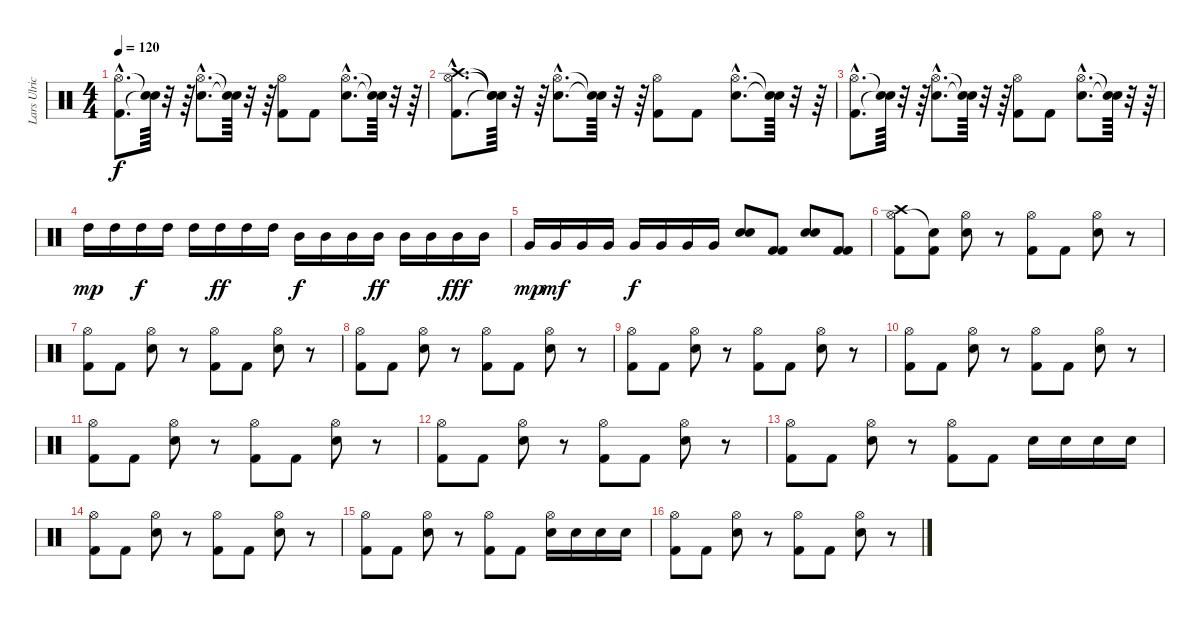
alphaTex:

\track ("Lars Ulrich" "Lars Ulric") {instrument percussion}
\staff {score}
\articulation defaults
\ts (4 4)
\tempo 120
\clef neutral
\ks c
("Kick (hit) 2"{hac} "Hi-Hat (open)"{hac}).8{d dy f} ("Snare (hit)"{t} "Snare (hit)"{t}).64 r.32 r.64 ("Snare (hit) 2"{hac} "Hi-Hat (open)"{hac}).8{d} ("Snare (hit)"{t} "Snare (hit)"{t}).64 r.32 r.64 ("Kick (hit) 2" "Hi-Hat (open)").8 "Kick (hit) 2".8 ("Snare (hit) 2"{hac} "Hi-Hat (open)"{hac}).8{d} ("Snare (hit)"{t} "Snare (hit)"{t}).64 r.32 r.64 |
("Kick (hit) 2"{hac} "Hi-Hat (open)"{hac} "Crash high (hit)"{hac}).8{d} ("Snare (hit)"{t} "Snare (hit)"{t} "Snare (hit)"{t}).64 r.32 r.64 ("Snare (hit) 2"{hac} "Hi-Hat (open)"{hac}).8{d} ("Snare (hit)"{t} "Snare (hit)"{t}).64 r.32 r.64 ("Kick (hit) 2" "Hi-Hat (open)").8 "Kick (hit) 2".8 ("Snare (hit) 2"{hac} "Hi-Hat (open)"{hac}).8{d} ("Snare (hit)"{t} "Snare (hit)"{t}).64 r.32 r.64 |
("Kick (hit) 2"{hac} "Hi-Hat (open)"{hac}).8{d} ("Snare (hit)"{t} "Snare (hit)"{t}).64 r.32 r.64 ("Snare (hit) 2"{hac} "Hi-Hat (open)"{hac}).8{d} ("Snare (hit)"{t} "Snare (hit)"{t}).64 r.32 r.64 ("Kick (hit) 2" "Hi-Hat (open)").8 "Kick (hit) 2".8 ("Snare (hit) 2"{hac} "Hi-Hat (open)"{hac}).8{d} ("Snare (hit)"{t} "Snare (hit)"{t}).64 r.32 r.64 |
"High Tom (hit)".16{dy mp} "High Tom (hit)".16 "High Tom (hit)".16{dy f} "High Tom (hit)".16 "High Tom (hit)".16 "High Tom (hit)".16{dy ff} "High Tom (hit)".16 "High Tom (hit)".16 "Mid Tom (hit)".16{dy f} "Mid Tom (hit)".16 "Mid Tom (hit)".16 "Mid Tom (hit)".16{dy ff} "Mid Tom (hit)".16 "Mid Tom (hit)".16 "Mid Tom (hit)".16{dy fff} "Mid Tom (hit)".16 |
"Very Low Tom (hit)".16{dy mp} "Very Low Tom (hit)".16{dy mf} "Very Low Tom (hit)".16 "Very Low Tom (hit)".16 "Very Low Tom (hit)".16{dy f} "Very Low Tom (hit)".16 "Very Low Tom (hit)".16 "Very Low Tom (hit)".16 ("Snare (hit) 2" "Snare (hit) 2").8 ("Kick (hit) 2" "Kick (hit) 2").8 ("Snare (hit) 2" "Snare (hit) 2").8 ("Kick (hit) 2" "Kick (hit) 2").8 |
("Kick (hit) 2" "Hi-Hat (open)" "Crash high (hit)").8 ("Kick (hit) 2" "Snare (hit)"{t}).8 ("Snare (hit) 2" "Hi-Hat (open)").8 r.8 ("Kick (hit) 2" "Hi-Hat (open)").8 "Kick (hit) 2".8 ("Snare (hit) 2" "Hi-Hat (open)").8 r.8 |
("Kick (hit) 2" "Hi-Hat (open)").8 "Kick (hit) 2".8 ("Snare (hit) 2" "Hi-Hat (open)").8 r.8 ("Kick (hit) 2" "Hi-Hat (open)").8 "Kick (hit) 2".8 ("Snare (hit) 2" "Hi-Hat (open)").8 r.8 |
("Kick (hit) 2" "Hi-Hat (open)").8 "Kick (hit) 2".8 ("Snare (hit) 2" "Hi-Hat (open)").8 r.8 ("Kick (hit) 2" "Hi-Hat (open)").8 "Kick (hit) 2".8 ("Snare (hit) 2" "Hi-Hat (open)").8 r.8 |
("Kick (hit) 2" "Hi-Hat (open)").8 "Kick (hit) 2".8 ("Snare (hit) 2" "Hi-Hat (open)").8 r.8 ("Kick (hit) 2" "Hi-Hat (open)").8 "Kick (hit) 2".8 ("Snare (hit) 2" "Hi-Hat (open)").8 r.8 |
("Kick (hit) 2" "Hi-Hat (open)").8 "Kick (hit) 2".8 ("Snare (hit) 2" "Hi-Hat (open)").8 r.8 ("Kick (hit) 2" "Hi-Hat (open)").8 "Kick (hit) 2".8 ("Snare (hit) 2" "Hi-Hat (open)").8 r.8 |
("Kick (hit) 2" "Hi-Hat (open)").8 "Kick (hit) 2".8 ("Snare (hit) 2" "Hi-Hat (open)").8 r.8 ("Kick (hit) 2" "Hi-Hat (open)").8 "Kick (hit) 2".8 ("Snare (hit) 2" "Hi-Hat (open)").8 r.8 |
("Kick (hit) 2" "Hi-Hat (open)").8 "Kick (hit) 2".8 ("Snare (hit) 2" "Hi-Hat (open)").8 r.8 ("Kick (hit) 2" "Hi-Hat (open)").8 "Kick (hit) 2".8 ("Snare (hit) 2" "Hi-Hat (open)").8 r.8 |
("Kick (hit) 2" "Hi-Hat (open)").8 "Kick (hit) 2".8 ("Snare (hit) 2" "Hi-Hat (open)").8 r.8 ("Kick (hit) 2" "Hi-Hat (open)").8 "Kick (hit) 2".8 "Snare (hit) 2".16 "Snare (hit) 2".16 "Snare (hit) 2".16 "Snare (hit) 2".16 |
("Kick (hit) 2" "Hi-Hat (open)").8 "Kick (hit) 2".8 ("Snare (hit) 2" "Hi-Hat (open)").8 r.8 ("Kick (hit) 2" "Hi-Hat (open)").8 "Kick (hit) 2".8 ("Snare (hit) 2" "Hi-Hat (open)").8 r.8 |
("Kick (hit) 2" "Hi-Hat (open)").8 "Kick (hit) 2".8 ("Snare (hit) 2" "Hi-Hat (open)").8 r.8 ("Kick (hit) 2" "Hi-Hat (open)").8 "Kick (hit) 2".8 ("Snare (hit) 2" "Hi-Hat (open)").16 "Snare (hit) 2".16 "Snare (hit) 2".16 "Snare (hit) 2".16 |
("Kick (hit) 2" "Hi-Hat (open)").8 "Kick (hit) 2".8 ("Snare (hit) 2" "Hi-Hat (open)").8 r.8 ("Kick (hit) 2" "Hi-Hat (open)").8 "Kick (hit) 2".8 ("Snare (hit) 2" "Hi-Hat (open)").8 r.8
